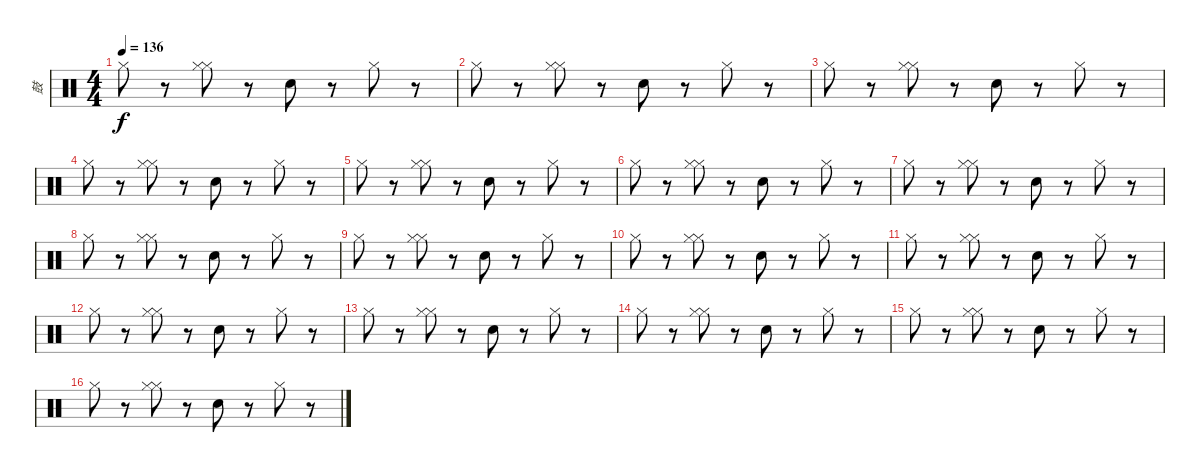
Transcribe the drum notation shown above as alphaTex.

\track ("鼓" "鼓") {instrument percussion}
\staff {score}
\articulation defaults
\ts (4 4)
\tempo 136
\clef neutral
\ks c "Hi-Hat (closed)".8{dy f}
r.8 ("Hi-Hat (closed)" "Hi-Hat (closed)").8 r.8 "Snare (hit) 2".8 r.8 "Hi-Hat (closed)".8 r.8 |
"Hi-Hat (closed)".8 r.8 ("Hi-Hat (closed)" "Hi-Hat (closed)").8 r.8 "Snare (hit) 2".8 r.8 "Hi-Hat (closed)".8 r.8 |
"Hi-Hat (closed)".8 r.8 ("Hi-Hat (closed)" "Hi-Hat (closed)").8 r.8 "Snare (hit) 2".8 r.8 "Hi-Hat (closed)".8 r.8 |
"Hi-Hat (closed)".8 r.8 ("Hi-Hat (closed)" "Hi-Hat (closed)").8 r.8 "Snare (hit) 2".8 r.8 "Hi-Hat (closed)".8 r.8 |
"Hi-Hat (closed)".8 r.8 ("Hi-Hat (closed)" "Hi-Hat (closed)").8 r.8 "Snare (hit) 2".8 r.8 "Hi-Hat (closed)".8 r.8 |
"Hi-Hat (closed)".8 r.8 ("Hi-Hat (closed)" "Hi-Hat (closed)").8 r.8 "Snare (hit) 2".8 r.8 "Hi-Hat (closed)".8 r.8 |
"Hi-Hat (closed)".8 r.8 ("Hi-Hat (closed)" "Hi-Hat (closed)").8 r.8 "Snare (hit) 2".8 r.8 "Hi-Hat (closed)".8 r.8 |
"Hi-Hat (closed)".8 r.8 ("Hi-Hat (closed)" "Hi-Hat (closed)").8 r.8 "Snare (hit) 2".8 r.8 "Hi-Hat (closed)".8 r.8 |
"Hi-Hat (closed)".8 r.8 ("Hi-Hat (closed)" "Hi-Hat (closed)").8 r.8 "Snare (hit) 2".8 r.8 "Hi-Hat (closed)".8 r.8 |
"Hi-Hat (closed)".8 r.8 ("Hi-Hat (closed)" "Hi-Hat (closed)").8 r.8 "Snare (hit) 2".8 r.8 "Hi-Hat (closed)".8 r.8 |
"Hi-Hat (closed)".8 r.8 ("Hi-Hat (closed)" "Hi-Hat (closed)").8 r.8 "Snare (hit) 2".8 r.8 "Hi-Hat (closed)".8 r.8 |
"Hi-Hat (closed)".8 r.8 ("Hi-Hat (closed)" "Hi-Hat (closed)").8 r.8 "Snare (hit) 2".8 r.8 "Hi-Hat (closed)".8 r.8 |
"Hi-Hat (closed)".8 r.8 ("Hi-Hat (closed)" "Hi-Hat (closed)").8 r.8 "Snare (hit) 2".8 r.8 "Hi-Hat (closed)".8 r.8 |
"Hi-Hat (closed)".8 r.8 ("Hi-Hat (closed)" "Hi-Hat (closed)").8 r.8 "Snare (hit) 2".8 r.8 "Hi-Hat (closed)".8 r.8 |
"Hi-Hat (closed)".8 r.8 ("Hi-Hat (closed)" "Hi-Hat (closed)").8 r.8 "Snare (hit) 2".8 r.8 "Hi-Hat (closed)".8 r.8 |
"Hi-Hat (closed)".8 r.8 ("Hi-Hat (closed)" "Hi-Hat (closed)").8 r.8 "Snare (hit) 2".8 r.8 "Hi-Hat (closed)".8 r.8
